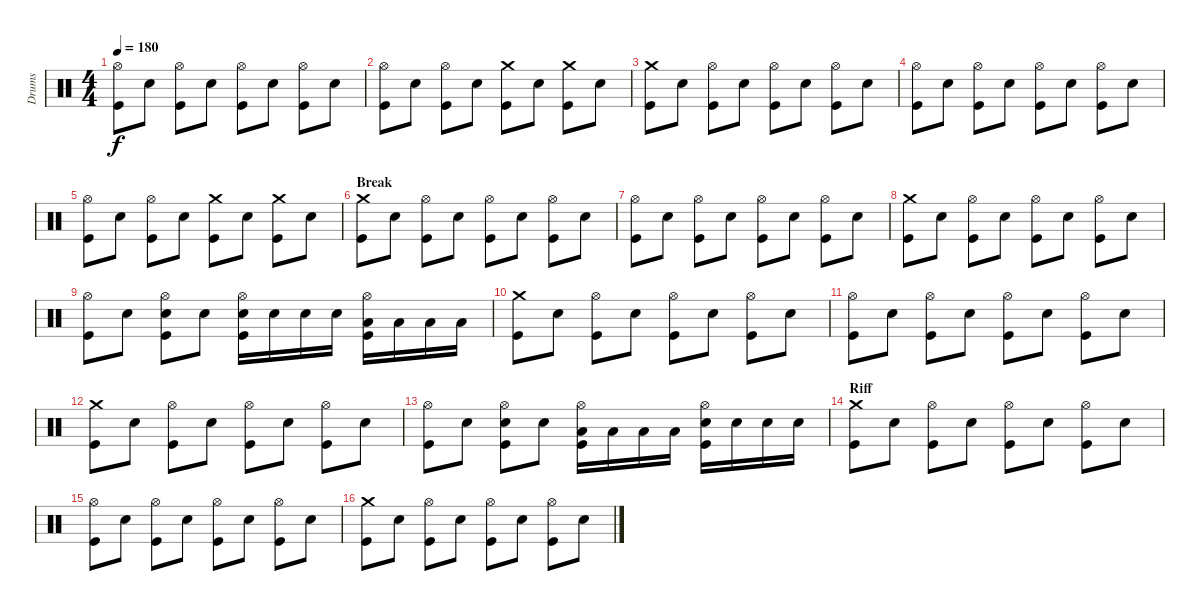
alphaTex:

\track ("Drums" "Drums") {instrument percussion}
\staff {score}
\articulation defaults
\ts (4 4)
\tempo 180
\clef neutral
\ks c
("Hi-Hat (open)" "Kick (hit)").8{dy f} "Snare (hit) 2".8 ("Hi-Hat (open)" "Kick (hit)").8 "Snare (hit) 2".8 ("Hi-Hat (open)" "Kick (hit)").8 "Snare (hit) 2".8 ("Hi-Hat (open)" "Kick (hit)").8 "Snare (hit) 2".8 |
("Hi-Hat (open)" "Kick (hit)").8 "Snare (hit) 2".8 ("Hi-Hat (open)" "Kick (hit)").8 "Snare (hit) 2".8 ("Crash medium (hit)" "Kick (hit)").8 "Snare (hit) 2".8 ("Crash medium (hit)" "Kick (hit)").8 "Snare (hit) 2".8 |
("Crash medium (hit)" "Kick (hit)").8 "Snare (hit) 2".8 ("Hi-Hat (open)" "Kick (hit)").8 "Snare (hit) 2".8 ("Hi-Hat (open)" "Kick (hit)").8 "Snare (hit) 2".8 ("Hi-Hat (open)" "Kick (hit)").8 "Snare (hit) 2".8 |
("Hi-Hat (open)" "Kick (hit)").8 "Snare (hit) 2".8 ("Hi-Hat (open)" "Kick (hit)").8 "Snare (hit) 2".8 ("Hi-Hat (open)" "Kick (hit)").8 "Snare (hit) 2".8 ("Hi-Hat (open)" "Kick (hit)").8 "Snare (hit) 2".8 |
("Hi-Hat (open)" "Kick (hit)").8 "Snare (hit) 2".8 ("Hi-Hat (open)" "Kick (hit)").8 "Snare (hit) 2".8 ("Crash medium (hit)" "Kick (hit)").8 "Snare (hit) 2".8 ("Crash medium (hit)" "Kick (hit)").8 "Snare (hit) 2".8 |
\section ("" "Break")
("Crash medium (hit)" "Kick (hit)").8 "Snare (hit) 2".8 ("Hi-Hat (open)" "Kick (hit)").8 "Snare (hit) 2".8 ("Hi-Hat (open)" "Kick (hit)").8 "Snare (hit) 2".8 ("Hi-Hat (open)" "Kick (hit)").8 "Snare (hit) 2".8 |
("Hi-Hat (open)" "Kick (hit)").8 "Snare (hit) 2".8 ("Hi-Hat (open)" "Kick (hit)").8 "Snare (hit) 2".8 ("Hi-Hat (open)" "Kick (hit)").8 "Snare (hit) 2".8 ("Hi-Hat (open)" "Kick (hit)").8 "Snare (hit) 2".8 |
("Crash medium (hit)" "Kick (hit)").8 "Snare (hit) 2".8 ("Hi-Hat (open)" "Kick (hit)").8 "Snare (hit) 2".8 ("Hi-Hat (open)" "Kick (hit)").8 "Snare (hit) 2".8 ("Hi-Hat (open)" "Kick (hit)").8 "Snare (hit) 2".8 |
("Hi-Hat (open)" "Kick (hit)").8 "Snare (hit) 2".8 ("Hi-Hat (open)" "Snare (hit) 2" "Kick (hit)").8 "Snare (hit) 2".8 ("Hi-Hat (open)" "Snare (hit) 2" "Kick (hit)").16 "Snare (hit) 2".16 "Snare (hit) 2".16 "Snare (hit) 2".16 ("Hi-Hat (open)" "Low Tom (hit)" "Kick (hit)").16 "Low Tom (hit)".16 "Low Tom (hit)".16 "Low Tom (hit)".16 |
("Crash medium (hit)" "Kick (hit)").8 "Snare (hit) 2".8 ("Hi-Hat (open)" "Kick (hit)").8 "Snare (hit) 2".8 ("Hi-Hat (open)" "Kick (hit)").8 "Snare (hit) 2".8 ("Hi-Hat (open)" "Kick (hit)").8 "Snare (hit) 2".8 |
("Hi-Hat (open)" "Kick (hit)").8 "Snare (hit) 2".8 ("Hi-Hat (open)" "Kick (hit)").8 "Snare (hit) 2".8 ("Hi-Hat (open)" "Kick (hit)").8 "Snare (hit) 2".8 ("Hi-Hat (open)" "Kick (hit)").8 "Snare (hit) 2".8 |
("Crash medium (hit)" "Kick (hit)").8 "Snare (hit) 2".8 ("Hi-Hat (open)" "Kick (hit)").8 "Snare (hit) 2".8 ("Hi-Hat (open)" "Kick (hit)").8 "Snare (hit) 2".8 ("Hi-Hat (open)" "Kick (hit)").8 "Snare (hit) 2".8 |
("Hi-Hat (open)" "Kick (hit)").8 "Snare (hit) 2".8 ("Hi-Hat (open)" "Snare (hit) 2" "Kick (hit)").8 "Snare (hit) 2".8 ("Hi-Hat (open)" "Low Tom (hit)" "Kick (hit)").16 "Low Tom (hit)".16 "Low Tom (hit)".16 "Low Tom (hit)".16 ("Hi-Hat (open)" "Snare (hit) 2" "Kick (hit)").16 "Snare (hit) 2".16 "Snare (hit) 2".16 "Snare (hit) 2".16 |
\section ("" "Riff")
("Crash medium (hit)" "Kick (hit)").8 "Snare (hit) 2".8 ("Hi-Hat (open)" "Kick (hit)").8 "Snare (hit) 2".8 ("Hi-Hat (open)" "Kick (hit)").8 "Snare (hit) 2".8 ("Hi-Hat (open)" "Kick (hit)").8 "Snare (hit) 2".8 |
("Hi-Hat (open)" "Kick (hit)").8 "Snare (hit) 2".8 ("Hi-Hat (open)" "Kick (hit)").8 "Snare (hit) 2".8 ("Hi-Hat (open)" "Kick (hit)").8 "Snare (hit) 2".8 ("Hi-Hat (open)" "Kick (hit)").8 "Snare (hit) 2".8 |
("Crash medium (hit)" "Kick (hit)").8 "Snare (hit) 2".8 ("Hi-Hat (open)" "Kick (hit)").8 "Snare (hit) 2".8 ("Hi-Hat (open)" "Kick (hit)").8 "Snare (hit) 2".8 ("Hi-Hat (open)" "Kick (hit)").8 "Snare (hit) 2".8
